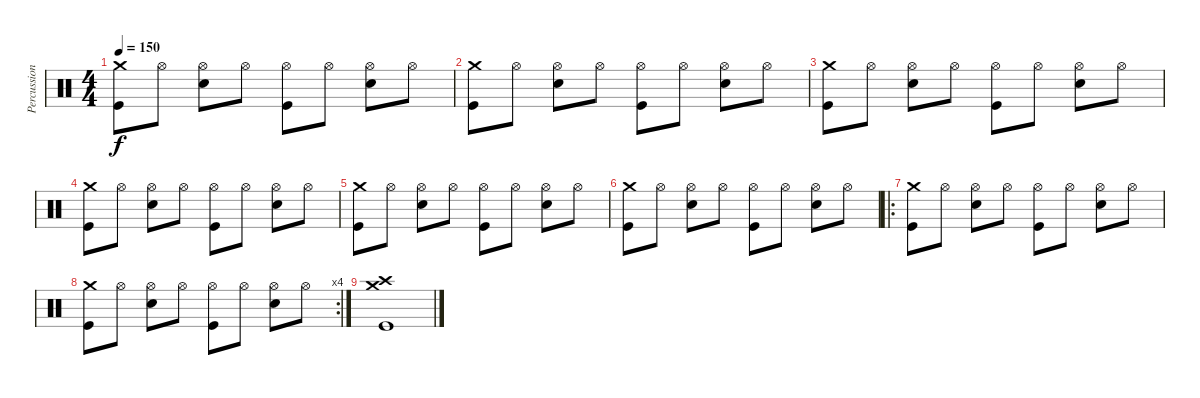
\track ("Percussion" "Percussion") {instrument percussion}
\staff {score}
\articulation defaults
\ts (4 4)
\tempo 150
\clef neutral
\ks c
("Crash medium (hit)" "Kick (hit)").8{dy f} "Hi-Hat (open)".8 ("Hi-Hat (open)" "Snare (hit) 2").8 "Hi-Hat (open)".8 ("Hi-Hat (open)" "Kick (hit)").8 "Hi-Hat (open)".8 ("Hi-Hat (open)" "Snare (hit) 2").8 "Hi-Hat (open)".8 |
("Crash medium (hit)" "Kick (hit)").8 "Hi-Hat (open)".8 ("Hi-Hat (open)" "Snare (hit) 2").8 "Hi-Hat (open)".8 ("Hi-Hat (open)" "Kick (hit)").8 "Hi-Hat (open)".8 ("Hi-Hat (open)" "Snare (hit) 2").8 "Hi-Hat (open)".8 |
("Crash medium (hit)" "Kick (hit)").8 "Hi-Hat (open)".8 ("Hi-Hat (open)" "Snare (hit) 2").8 "Hi-Hat (open)".8 ("Hi-Hat (open)" "Kick (hit)").8 "Hi-Hat (open)".8 ("Hi-Hat (open)" "Snare (hit) 2").8 "Hi-Hat (open)".8 |
("Crash medium (hit)" "Kick (hit)").8 "Hi-Hat (open)".8 ("Hi-Hat (open)" "Snare (hit) 2").8 "Hi-Hat (open)".8 ("Hi-Hat (open)" "Kick (hit)").8 "Hi-Hat (open)".8 ("Hi-Hat (open)" "Snare (hit) 2").8 "Hi-Hat (open)".8 |
("Crash medium (hit)" "Kick (hit)").8 "Hi-Hat (open)".8 ("Hi-Hat (open)" "Snare (hit) 2").8 "Hi-Hat (open)".8 ("Hi-Hat (open)" "Kick (hit)").8 "Hi-Hat (open)".8 ("Hi-Hat (open)" "Snare (hit) 2").8 "Hi-Hat (open)".8 |
("Crash medium (hit)" "Kick (hit)").8 "Hi-Hat (open)".8 ("Hi-Hat (open)" "Snare (hit) 2").8 "Hi-Hat (open)".8 ("Hi-Hat (open)" "Kick (hit)").8 "Hi-Hat (open)".8 ("Hi-Hat (open)" "Snare (hit) 2").8 "Hi-Hat (open)".8 |
\ro
("Crash medium (hit)" "Kick (hit)").8 "Hi-Hat (open)".8 ("Hi-Hat (open)" "Snare (hit) 2").8 "Hi-Hat (open)".8 ("Hi-Hat (open)" "Kick (hit)").8 "Hi-Hat (open)".8 ("Hi-Hat (open)" "Snare (hit) 2").8 "Hi-Hat (open)".8 |
\rc 4
("Crash medium (hit)" "Kick (hit)").8 "Hi-Hat (open)".8 ("Hi-Hat (open)" "Snare (hit) 2").8 "Hi-Hat (open)".8 ("Hi-Hat (open)" "Kick (hit)").8 "Hi-Hat (open)".8 ("Hi-Hat (open)" "Snare (hit) 2").8 "Hi-Hat (open)".8 |
("Crash medium (hit)" "Crash high (hit)" "Kick (hit)").1
